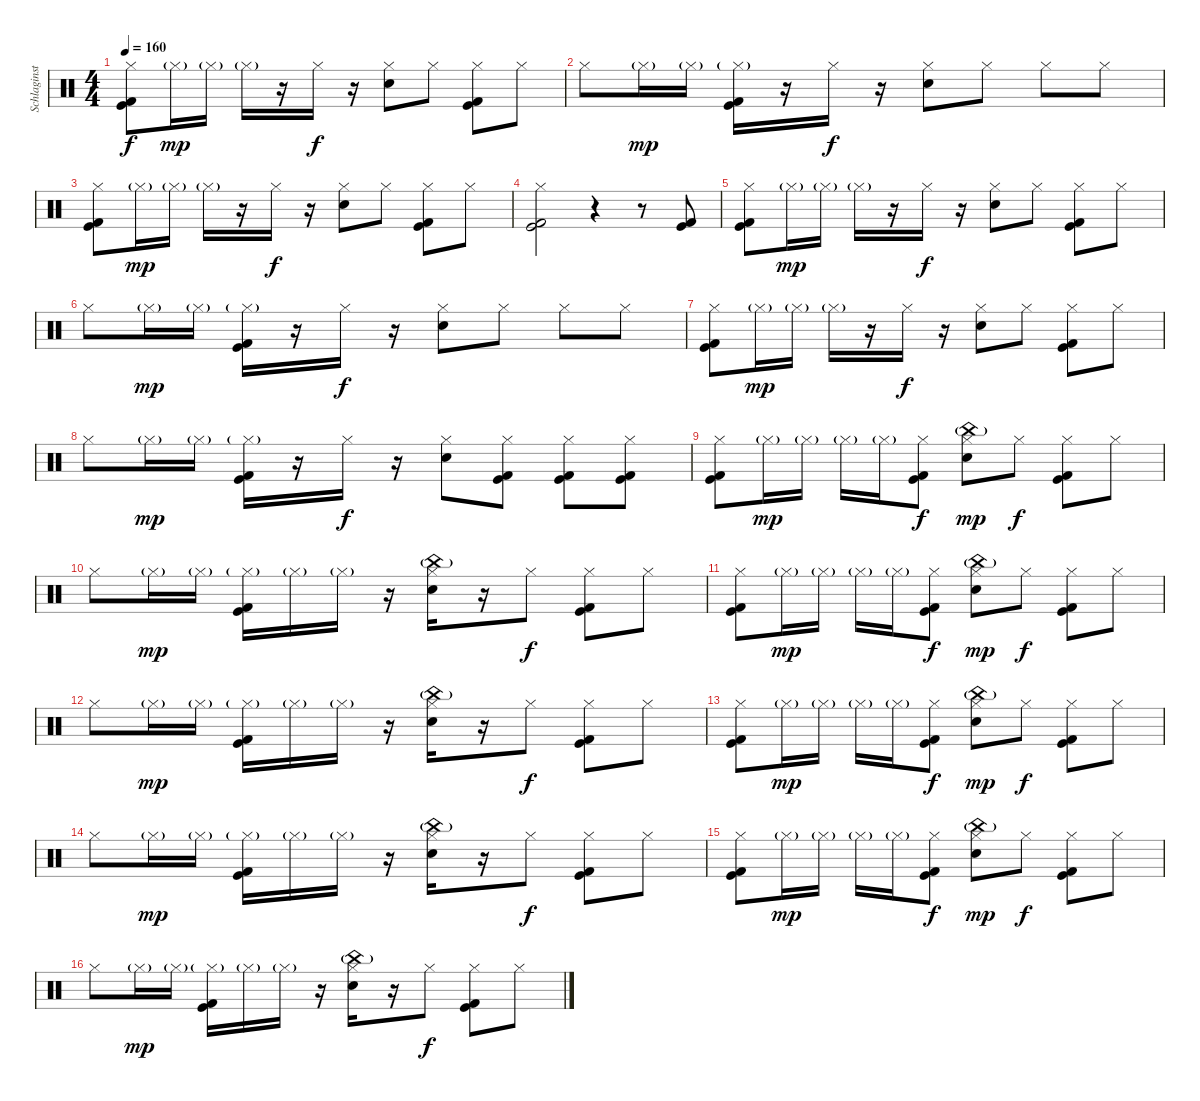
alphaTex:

\track ("Schlaginstrumente - Auswahl" "Schlaginst") {instrument percussion}
\staff {score}
\articulation defaults
\ts (4 4)
\tempo 160
\clef neutral
\ks c
("Hi-Hat (closed)" "Kick (hit)" "Kick (hit) 2").8{dy f} "Hi-Hat (closed)"{g}.16{dy mp} "Hi-Hat (closed)"{g}.16 "Hi-Hat (closed)"{g}.16 r.16 "Hi-Hat (closed)".16{dy f} r.16 ("Hi-Hat (closed)" "Snare (hit) 2").8 "Hi-Hat (closed)".8 ("Hi-Hat (closed)" "Kick (hit)" "Kick (hit) 2").8 "Hi-Hat (closed)".8 |
"Hi-Hat (closed)".8 "Hi-Hat (closed)"{g}.16{dy mp} "Hi-Hat (closed)"{g}.16 ("Hi-Hat (closed)"{g} "Kick (hit)" "Kick (hit) 2").16 r.16 "Hi-Hat (closed)".16{dy f} r.16 ("Hi-Hat (closed)" "Snare (hit) 2").8 "Hi-Hat (closed)".8 "Hi-Hat (closed)".8 "Hi-Hat (closed)".8 |
("Hi-Hat (closed)" "Kick (hit)" "Kick (hit) 2").8 "Hi-Hat (closed)"{g}.16{dy mp} "Hi-Hat (closed)"{g}.16 "Hi-Hat (closed)"{g}.16 r.16 "Hi-Hat (closed)".16{dy f} r.16 ("Hi-Hat (closed)" "Snare (hit) 2").8 "Hi-Hat (closed)".8 ("Hi-Hat (closed)" "Kick (hit)" "Kick (hit) 2").8 "Hi-Hat (closed)".8 |
("Hi-Hat (closed)" "Kick (hit)" "Kick (hit) 2").2 r.4 r.8 ("Kick (hit)" "Kick (hit) 2").8 |
("Hi-Hat (closed)" "Kick (hit)" "Kick (hit) 2").8 "Hi-Hat (closed)"{g}.16{dy mp} "Hi-Hat (closed)"{g}.16 "Hi-Hat (closed)"{g}.16 r.16 "Hi-Hat (closed)".16{dy f} r.16 ("Hi-Hat (closed)" "Snare (hit) 2").8 "Hi-Hat (closed)".8 ("Hi-Hat (closed)" "Kick (hit)" "Kick (hit) 2").8 "Hi-Hat (closed)".8 |
"Hi-Hat (closed)".8 "Hi-Hat (closed)"{g}.16{dy mp} "Hi-Hat (closed)"{g}.16 ("Hi-Hat (closed)"{g} "Kick (hit)" "Kick (hit) 2").16 r.16 "Hi-Hat (closed)".16{dy f} r.16 ("Hi-Hat (closed)" "Snare (hit) 2").8 "Hi-Hat (closed)".8 "Hi-Hat (closed)".8 "Hi-Hat (closed)".8 |
("Hi-Hat (closed)" "Kick (hit)" "Kick (hit) 2").8 "Hi-Hat (closed)"{g}.16{dy mp} "Hi-Hat (closed)"{g}.16 "Hi-Hat (closed)"{g}.16 r.16 "Hi-Hat (closed)".16{dy f} r.16 ("Hi-Hat (closed)" "Snare (hit) 2").8 "Hi-Hat (closed)".8 ("Hi-Hat (closed)" "Kick (hit)" "Kick (hit) 2").8 "Hi-Hat (closed)".8 |
"Hi-Hat (closed)".8 "Hi-Hat (closed)"{g}.16{dy mp} "Hi-Hat (closed)"{g}.16 ("Hi-Hat (closed)"{g} "Kick (hit)" "Kick (hit) 2").16 r.16 "Hi-Hat (closed)".16{dy f} r.16 ("Hi-Hat (closed)" "Snare (hit) 2").8 ("Hi-Hat (closed)" "Kick (hit)" "Kick (hit) 2").8 ("Hi-Hat (closed)" "Kick (hit)" "Kick (hit) 2").8 ("Hi-Hat (closed)" "Kick (hit)" "Kick (hit) 2").8 |
("Hi-Hat (closed)" "Kick (hit)" "Kick (hit) 2").8 "Hi-Hat (closed)"{g}.16{dy mp} "Hi-Hat (closed)"{g}.16 "Hi-Hat (closed)"{g}.16 "Hi-Hat (closed)"{g}.16 ("Hi-Hat (closed)" "Kick (hit)" "Kick (hit) 2").8{dy f} ("Hi-Hat (closed)" "China (hit)"{g} "Snare (hit) 2").8{dy mp} "Hi-Hat (closed)".8{dy f} ("Hi-Hat (closed)" "Kick (hit)" "Kick (hit) 2").8 "Hi-Hat (closed)".8 |
"Hi-Hat (closed)".8 "Hi-Hat (closed)"{g}.16{dy mp} "Hi-Hat (closed)"{g}.16 ("Hi-Hat (closed)"{g} "Kick (hit)" "Kick (hit) 2").16 "Hi-Hat (closed)"{g}.16 "Hi-Hat (closed)"{g}.16 r.16 ("Hi-Hat (closed)" "China (hit)"{g} "Snare (hit) 2").16 r.16 "Hi-Hat (closed)".8{dy f} ("Hi-Hat (closed)" "Kick (hit)" "Kick (hit) 2").8 "Hi-Hat (closed)".8 |
("Hi-Hat (closed)" "Kick (hit)" "Kick (hit) 2").8 "Hi-Hat (closed)"{g}.16{dy mp} "Hi-Hat (closed)"{g}.16 "Hi-Hat (closed)"{g}.16 "Hi-Hat (closed)"{g}.16 ("Hi-Hat (closed)" "Kick (hit)" "Kick (hit) 2").8{dy f} ("Hi-Hat (closed)" "China (hit)"{g} "Snare (hit) 2").8{dy mp} "Hi-Hat (closed)".8{dy f} ("Hi-Hat (closed)" "Kick (hit)" "Kick (hit) 2").8 "Hi-Hat (closed)".8 |
"Hi-Hat (closed)".8 "Hi-Hat (closed)"{g}.16{dy mp} "Hi-Hat (closed)"{g}.16 ("Hi-Hat (closed)"{g} "Kick (hit)" "Kick (hit) 2").16 "Hi-Hat (closed)"{g}.16 "Hi-Hat (closed)"{g}.16 r.16 ("Hi-Hat (closed)" "China (hit)"{g} "Snare (hit) 2").16 r.16 "Hi-Hat (closed)".8{dy f} ("Hi-Hat (closed)" "Kick (hit)" "Kick (hit) 2").8 "Hi-Hat (closed)".8 |
("Hi-Hat (closed)" "Kick (hit)" "Kick (hit) 2").8 "Hi-Hat (closed)"{g}.16{dy mp} "Hi-Hat (closed)"{g}.16 "Hi-Hat (closed)"{g}.16 "Hi-Hat (closed)"{g}.16 ("Hi-Hat (closed)" "Kick (hit)" "Kick (hit) 2").8{dy f} ("Hi-Hat (closed)" "China (hit)"{g} "Snare (hit) 2").8{dy mp} "Hi-Hat (closed)".8{dy f} ("Hi-Hat (closed)" "Kick (hit)" "Kick (hit) 2").8 "Hi-Hat (closed)".8 |
"Hi-Hat (closed)".8 "Hi-Hat (closed)"{g}.16{dy mp} "Hi-Hat (closed)"{g}.16 ("Hi-Hat (closed)"{g} "Kick (hit)" "Kick (hit) 2").16 "Hi-Hat (closed)"{g}.16 "Hi-Hat (closed)"{g}.16 r.16 ("Hi-Hat (closed)" "China (hit)"{g} "Snare (hit) 2").16 r.16 "Hi-Hat (closed)".8{dy f} ("Hi-Hat (closed)" "Kick (hit)" "Kick (hit) 2").8 "Hi-Hat (closed)".8 |
("Hi-Hat (closed)" "Kick (hit)" "Kick (hit) 2").8 "Hi-Hat (closed)"{g}.16{dy mp} "Hi-Hat (closed)"{g}.16 "Hi-Hat (closed)"{g}.16 "Hi-Hat (closed)"{g}.16 ("Hi-Hat (closed)" "Kick (hit)" "Kick (hit) 2").8{dy f} ("Hi-Hat (closed)" "China (hit)"{g} "Snare (hit) 2").8{dy mp} "Hi-Hat (closed)".8{dy f} ("Hi-Hat (closed)" "Kick (hit)" "Kick (hit) 2").8 "Hi-Hat (closed)".8 |
"Hi-Hat (closed)".8 "Hi-Hat (closed)"{g}.16{dy mp} "Hi-Hat (closed)"{g}.16 ("Hi-Hat (closed)"{g} "Kick (hit)" "Kick (hit) 2").16 "Hi-Hat (closed)"{g}.16 "Hi-Hat (closed)"{g}.16 r.16 ("Hi-Hat (closed)" "China (hit)"{g} "Snare (hit) 2").16 r.16 "Hi-Hat (closed)".8{dy f} ("Hi-Hat (closed)" "Kick (hit)" "Kick (hit) 2").8 "Hi-Hat (closed)".8
